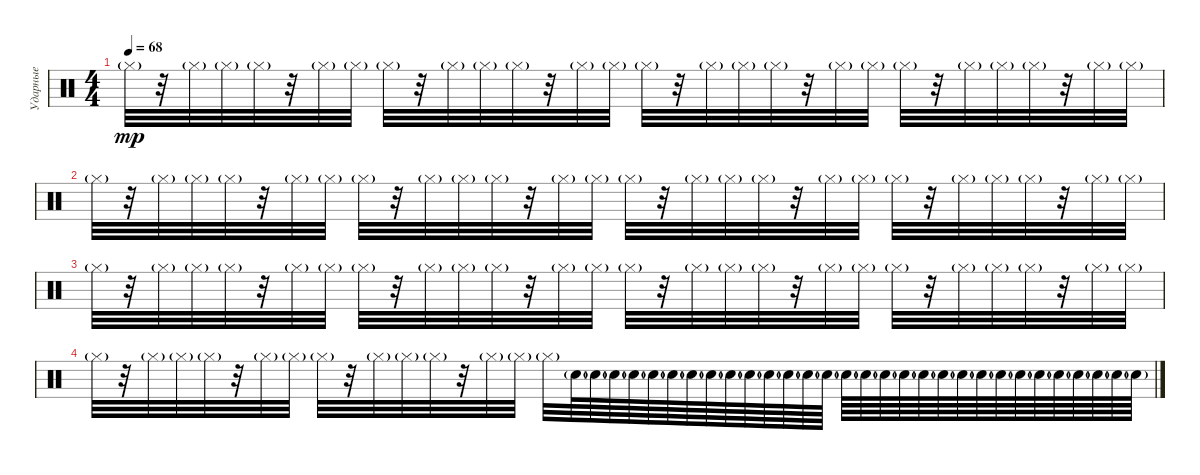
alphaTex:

\track ("Ударные" "Ударные") {instrument percussion}
\staff {score}
\articulation defaults
\ts (4 4)
\tempo 68
\clef neutral
\ks c "Hi-Hat (closed)"{g}.32{dy mp}
r.32 "Hi-Hat (closed)"{g}.32 "Hi-Hat (closed)"{g}.32 "Hi-Hat (closed)"{g}.32 r.32 "Hi-Hat (closed)"{g}.32 "Hi-Hat (closed)"{g}.32 "Hi-Hat (closed)"{g}.32 r.32 "Hi-Hat (closed)"{g}.32 "Hi-Hat (closed)"{g}.32 "Hi-Hat (closed)"{g}.32 r.32 "Hi-Hat (closed)"{g}.32 "Hi-Hat (closed)"{g}.32 "Hi-Hat (closed)"{g}.32 r.32 "Hi-Hat (closed)"{g}.32 "Hi-Hat (closed)"{g}.32 "Hi-Hat (closed)"{g}.32 r.32 "Hi-Hat (closed)"{g}.32 "Hi-Hat (closed)"{g}.32 "Hi-Hat (closed)"{g}.32 r.32 "Hi-Hat (closed)"{g}.32 "Hi-Hat (closed)"{g}.32 "Hi-Hat (closed)"{g}.32 r.32 "Hi-Hat (closed)"{g}.32 "Hi-Hat (closed)"{g}.32 |
"Hi-Hat (closed)"{g}.32 r.32 "Hi-Hat (closed)"{g}.32 "Hi-Hat (closed)"{g}.32 "Hi-Hat (closed)"{g}.32 r.32 "Hi-Hat (closed)"{g}.32 "Hi-Hat (closed)"{g}.32 "Hi-Hat (closed)"{g}.32 r.32 "Hi-Hat (closed)"{g}.32 "Hi-Hat (closed)"{g}.32 "Hi-Hat (closed)"{g}.32 r.32 "Hi-Hat (closed)"{g}.32 "Hi-Hat (closed)"{g}.32 "Hi-Hat (closed)"{g}.32 r.32 "Hi-Hat (closed)"{g}.32 "Hi-Hat (closed)"{g}.32 "Hi-Hat (closed)"{g}.32 r.32 "Hi-Hat (closed)"{g}.32 "Hi-Hat (closed)"{g}.32 "Hi-Hat (closed)"{g}.32 r.32 "Hi-Hat (closed)"{g}.32 "Hi-Hat (closed)"{g}.32 "Hi-Hat (closed)"{g}.32 r.32 "Hi-Hat (closed)"{g}.32 "Hi-Hat (closed)"{g}.32 |
"Hi-Hat (closed)"{g}.32 r.32 "Hi-Hat (closed)"{g}.32 "Hi-Hat (closed)"{g}.32 "Hi-Hat (closed)"{g}.32 r.32 "Hi-Hat (closed)"{g}.32 "Hi-Hat (closed)"{g}.32 "Hi-Hat (closed)"{g}.32 r.32 "Hi-Hat (closed)"{g}.32 "Hi-Hat (closed)"{g}.32 "Hi-Hat (closed)"{g}.32 r.32 "Hi-Hat (closed)"{g}.32 "Hi-Hat (closed)"{g}.32 "Hi-Hat (closed)"{g}.32 r.32 "Hi-Hat (closed)"{g}.32 "Hi-Hat (closed)"{g}.32 "Hi-Hat (closed)"{g}.32 r.32 "Hi-Hat (closed)"{g}.32 "Hi-Hat (closed)"{g}.32 "Hi-Hat (closed)"{g}.32 r.32 "Hi-Hat (closed)"{g}.32 "Hi-Hat (closed)"{g}.32 "Hi-Hat (closed)"{g}.32 r.32 "Hi-Hat (closed)"{g}.32 "Hi-Hat (closed)"{g}.32 |
"Hi-Hat (closed)"{g}.32 r.32 "Hi-Hat (closed)"{g}.32 "Hi-Hat (closed)"{g}.32 "Hi-Hat (closed)"{g}.32 r.32 "Hi-Hat (closed)"{g}.32 "Hi-Hat (closed)"{g}.32 "Hi-Hat (closed)"{g}.32 r.32 "Hi-Hat (closed)"{g}.32 "Hi-Hat (closed)"{g}.32 "Hi-Hat (closed)"{g}.32 r.32 "Hi-Hat (closed)"{g}.32 "Hi-Hat (closed)"{g}.32 "Hi-Hat (closed)"{g}.32 "Snare (hit) 2"{g}.64{volume 7} "Snare (hit) 2"{g}.64 "Snare (hit) 2"{g}.64 "Snare (hit) 2"{g}.64 "Snare (hit) 2"{g}.64 "Snare (hit) 2"{g}.64 "Snare (hit) 2"{g}.64 "Snare (hit) 2"{g}.64 "Snare (hit) 2"{g}.64 "Snare (hit) 2"{g}.64 "Snare (hit) 2"{g}.64 "Snare (hit) 2"{g}.64 "Snare (hit) 2"{g}.64 "Snare (hit) 2"{g}.64 "Snare (hit) 2"{g}.64 "Snare (hit) 2"{g}.64 "Snare (hit) 2"{g}.64 "Snare (hit) 2"{g}.64 "Snare (hit) 2"{g}.64 "Snare (hit) 2"{g}.64 "Snare (hit) 2"{g}.64 "Snare (hit) 2"{g}.64 "Snare (hit) 2"{g}.64 "Snare (hit) 2"{g}.64 "Snare (hit) 2"{g}.64 "Snare (hit) 2"{g}.64 "Snare (hit) 2"{g}.64 "Snare (hit) 2"{g}.64 "Snare (hit) 2"{g}.64 "Snare (hit) 2"{g}.64
